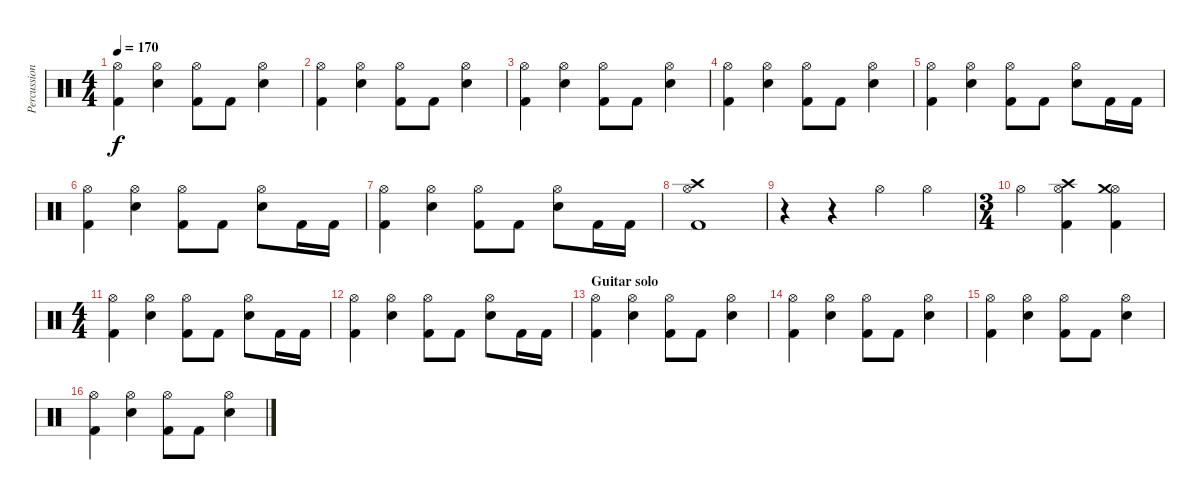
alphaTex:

\track ("Percussion - Who the fuck knows" "Percussion") {instrument percussion}
\staff {score}
\articulation defaults
\ts (4 4)
\tempo 170
\clef neutral
\ks c
("Kick (hit) 2" "Hi-Hat (open)").4{dy f} ("Hi-Hat (open)" "Snare (hit) 2").4 ("Hi-Hat (open)" "Kick (hit) 2").8 "Kick (hit) 2".8 ("Hi-Hat (open)" "Snare (hit) 2").4 |
("Kick (hit) 2" "Hi-Hat (open)").4 ("Hi-Hat (open)" "Snare (hit) 2").4 ("Hi-Hat (open)" "Kick (hit) 2").8 "Kick (hit) 2".8 ("Hi-Hat (open)" "Snare (hit) 2").4 |
("Kick (hit) 2" "Hi-Hat (open)").4 ("Hi-Hat (open)" "Snare (hit) 2").4 ("Hi-Hat (open)" "Kick (hit) 2").8 "Kick (hit) 2".8 ("Hi-Hat (open)" "Snare (hit) 2").4 |
("Kick (hit) 2" "Hi-Hat (open)").4 ("Hi-Hat (open)" "Snare (hit) 2").4 ("Hi-Hat (open)" "Kick (hit) 2").8 "Kick (hit) 2".8 ("Hi-Hat (open)" "Snare (hit) 2").4 |
("Kick (hit) 2" "Hi-Hat (open)").4 ("Hi-Hat (open)" "Snare (hit) 2").4 ("Hi-Hat (open)" "Kick (hit) 2").8 "Kick (hit) 2".8 ("Hi-Hat (open)" "Snare (hit) 2").8 "Kick (hit) 2".16 "Kick (hit) 2".16 |
("Kick (hit) 2" "Hi-Hat (open)").4 ("Hi-Hat (open)" "Snare (hit) 2").4 ("Hi-Hat (open)" "Kick (hit) 2").8 "Kick (hit) 2".8 ("Hi-Hat (open)" "Snare (hit) 2").8 "Kick (hit) 2".16 "Kick (hit) 2".16 |
("Kick (hit) 2" "Hi-Hat (open)").4 ("Hi-Hat (open)" "Snare (hit) 2").4 ("Hi-Hat (open)" "Kick (hit) 2").8 "Kick (hit) 2".8 ("Hi-Hat (open)" "Snare (hit) 2").8 "Kick (hit) 2".16 "Kick (hit) 2".16 |
("Kick (hit) 2" "Hi-Hat (open)" "Crash high (hit)").1 |
r.4 r.4 "Hi-Hat (open)".4 "Hi-Hat (open)".4 |
\ts (3 4)
"Hi-Hat (open)".4 ("Kick (hit) 2" "Hi-Hat (open)" "Crash high (hit)").4 ("Hi-Hat (open)" "Kick (hit) 2" "Crash medium (hit)").4 |
\ts (4 4)
("Kick (hit) 2" "Hi-Hat (open)").4 ("Hi-Hat (open)" "Snare (hit) 2").4 ("Hi-Hat (open)" "Kick (hit) 2").8 "Kick (hit) 2".8 ("Hi-Hat (open)" "Snare (hit) 2").8 "Kick (hit) 2".16 "Kick (hit) 2".16 |
("Kick (hit) 2" "Hi-Hat (open)").4 ("Hi-Hat (open)" "Snare (hit) 2").4 ("Hi-Hat (open)" "Kick (hit) 2").8 "Kick (hit) 2".8 ("Hi-Hat (open)" "Snare (hit) 2").8 "Kick (hit) 2".16 "Kick (hit) 2".16 |
\section ("" "Guitar solo")
("Kick (hit) 2" "Hi-Hat (open)").4 ("Hi-Hat (open)" "Snare (hit) 2").4 ("Hi-Hat (open)" "Kick (hit) 2").8 "Kick (hit) 2".8 ("Hi-Hat (open)" "Snare (hit) 2").4 |
("Kick (hit) 2" "Hi-Hat (open)").4 ("Hi-Hat (open)" "Snare (hit) 2").4 ("Hi-Hat (open)" "Kick (hit) 2").8 "Kick (hit) 2".8 ("Hi-Hat (open)" "Snare (hit) 2").4 |
("Kick (hit) 2" "Hi-Hat (open)").4 ("Hi-Hat (open)" "Snare (hit) 2").4 ("Hi-Hat (open)" "Kick (hit) 2").8 "Kick (hit) 2".8 ("Hi-Hat (open)" "Snare (hit) 2").4 |
("Kick (hit) 2" "Hi-Hat (open)").4 ("Hi-Hat (open)" "Snare (hit) 2").4 ("Hi-Hat (open)" "Kick (hit) 2").8 "Kick (hit) 2".8 ("Hi-Hat (open)" "Snare (hit) 2").4
